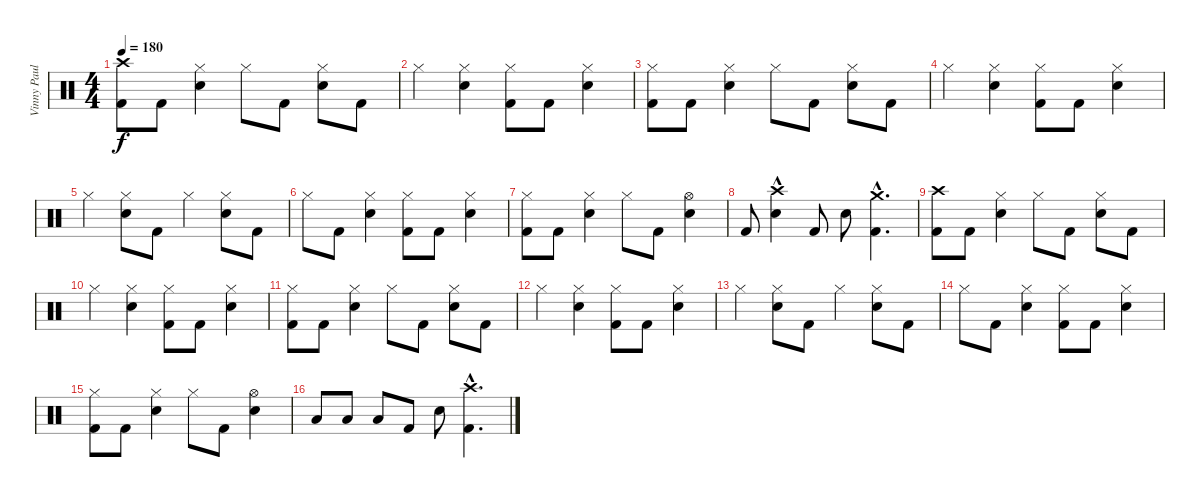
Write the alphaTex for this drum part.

\track ("Vinny Paul" "Vinny Paul") {instrument percussion}
\staff {score}
\articulation defaults
\ts (4 4)
\tempo 180
\clef neutral
\ks c
("Crash high (hit)" "Kick (hit) 2").8{dy f} "Kick (hit) 2".8 ("Hi-Hat (closed)" "Electric Snare (hit)").4 "Hi-Hat (closed)".8 "Kick (hit) 2".8 ("Hi-Hat (closed)" "Electric Snare (hit)").8 "Kick (hit) 2".8 |
"Hi-Hat (closed)".4 ("Hi-Hat (closed)" "Electric Snare (hit)").4 ("Hi-Hat (closed)" "Kick (hit) 2").8 "Kick (hit) 2".8 ("Hi-Hat (closed)" "Electric Snare (hit)").4 |
("Hi-Hat (closed)" "Kick (hit) 2").8 "Kick (hit) 2".8 ("Hi-Hat (closed)" "Electric Snare (hit)").4 "Hi-Hat (closed)".8 "Kick (hit) 2".8 ("Hi-Hat (closed)" "Electric Snare (hit)").8 "Kick (hit) 2".8 |
"Hi-Hat (closed)".4 ("Hi-Hat (closed)" "Electric Snare (hit)").4 ("Hi-Hat (closed)" "Kick (hit) 2").8 "Kick (hit) 2".8 ("Hi-Hat (closed)" "Electric Snare (hit)").4 |
"Hi-Hat (closed)".4 ("Hi-Hat (closed)" "Electric Snare (hit)").8 "Kick (hit) 2".8 "Hi-Hat (closed)".4 ("Hi-Hat (closed)" "Electric Snare (hit)").8 "Kick (hit) 2".8 |
"Hi-Hat (closed)".8 "Kick (hit) 2".8 ("Hi-Hat (closed)" "Electric Snare (hit)").4 ("Hi-Hat (closed)" "Kick (hit) 2").8 "Kick (hit) 2".8 ("Hi-Hat (closed)" "Electric Snare (hit)").4 |
("Hi-Hat (closed)" "Kick (hit) 2").8 "Kick (hit) 2".8 ("Hi-Hat (closed)" "Electric Snare (hit)").4 "Hi-Hat (closed)".8 "Kick (hit) 2".8 ("Hi-Hat (open)" "Electric Snare (hit)").4 |
"Kick (hit) 2".8 ("Crash high (hit)"{hac} "Electric Snare (hit)").4 "Kick (hit) 2".8 "Electric Snare (hit)".8 ("Crash medium (hit)"{hac} "Kick (hit) 2"{hac}).4{d} |
("Crash high (hit)" "Kick (hit) 2").8 "Kick (hit) 2".8 ("Hi-Hat (closed)" "Electric Snare (hit)").4 "Hi-Hat (closed)".8 "Kick (hit) 2".8 ("Hi-Hat (closed)" "Electric Snare (hit)").8 "Kick (hit) 2".8 |
"Hi-Hat (closed)".4 ("Hi-Hat (closed)" "Electric Snare (hit)").4 ("Hi-Hat (closed)" "Kick (hit) 2").8 "Kick (hit) 2".8 ("Hi-Hat (closed)" "Electric Snare (hit)").4 |
("Hi-Hat (closed)" "Kick (hit) 2").8 "Kick (hit) 2".8 ("Hi-Hat (closed)" "Electric Snare (hit)").4 "Hi-Hat (closed)".8 "Kick (hit) 2".8 ("Hi-Hat (closed)" "Electric Snare (hit)").8 "Kick (hit) 2".8 |
"Hi-Hat (closed)".4 ("Hi-Hat (closed)" "Electric Snare (hit)").4 ("Hi-Hat (closed)" "Kick (hit) 2").8 "Kick (hit) 2".8 ("Hi-Hat (closed)" "Electric Snare (hit)").4 |
"Hi-Hat (closed)".4 ("Hi-Hat (closed)" "Electric Snare (hit)").8 "Kick (hit) 2".8 "Hi-Hat (closed)".4 ("Hi-Hat (closed)" "Electric Snare (hit)").8 "Kick (hit) 2".8 |
"Hi-Hat (closed)".8 "Kick (hit) 2".8 ("Hi-Hat (closed)" "Electric Snare (hit)").4 ("Hi-Hat (closed)" "Kick (hit) 2").8 "Kick (hit) 2".8 ("Hi-Hat (closed)" "Electric Snare (hit)").4 |
("Hi-Hat (closed)" "Kick (hit) 2").8 "Kick (hit) 2".8 ("Hi-Hat (closed)" "Electric Snare (hit)").4 "Hi-Hat (closed)".8 "Kick (hit) 2".8 ("Hi-Hat (open)" "Electric Snare (hit)").4 |
"Low Tom (hit)".8 "Low Tom (hit)".8 "Low Tom (hit)".8 "Kick (hit) 2".8 "Electric Snare (hit)".8 ("Crash high (hit)"{hac} "Kick (hit) 2"{hac}).4{d}
